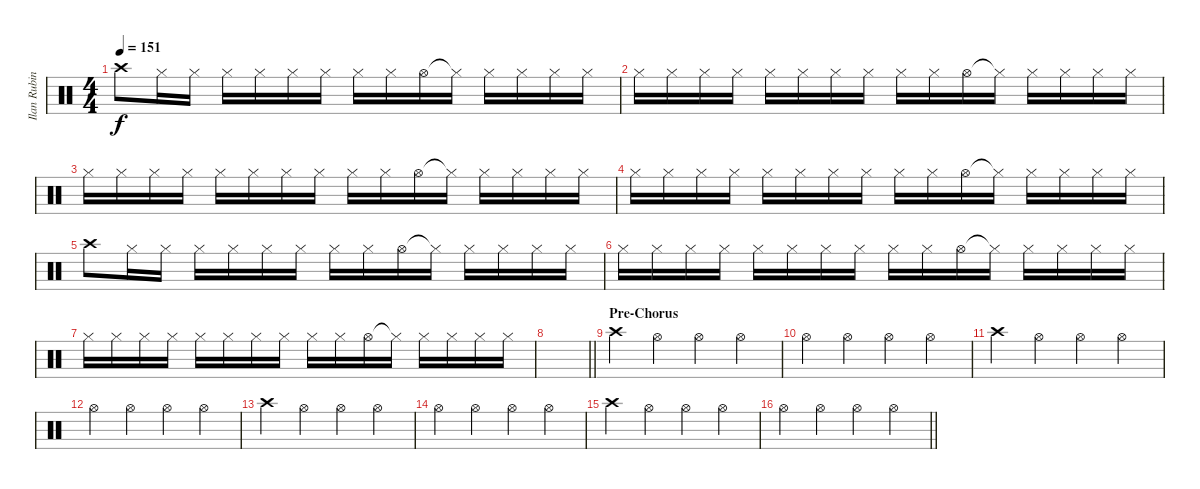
\track ("Ilan Rubin [Drums]" "Ilan Rubin") {instrument percussion}
\staff {score}
\articulation defaults
\ts (4 4)
\tempo 151
\clef neutral
\ks c "Crash high (hit)".8{dy f} "Hi-Hat (closed)".16 "Hi-Hat (closed)".16 "Hi-Hat (closed)".16 "Hi-Hat (closed)".16 "Hi-Hat (closed)".16 "Hi-Hat (closed)".16 "Hi-Hat (closed)".16 "Hi-Hat (closed)".16 "Hi-Hat (open)".16 "Hi-Hat (closed)"{t}.16 "Hi-Hat (closed)".16 "Hi-Hat (closed)".16 "Hi-Hat (closed)".16 "Hi-Hat (closed)".16
|
"Hi-Hat (closed)".16 "Hi-Hat (closed)".16 "Hi-Hat (closed)".16 "Hi-Hat (closed)".16 "Hi-Hat (closed)".16 "Hi-Hat (closed)".16 "Hi-Hat (closed)".16 "Hi-Hat (closed)".16 "Hi-Hat (closed)".16 "Hi-Hat (closed)".16 "Hi-Hat (open)".16 "Hi-Hat (closed)"{t}.16 "Hi-Hat (closed)".16 "Hi-Hat (closed)".16 "Hi-Hat (closed)".16 "Hi-Hat (closed)".16 |
"Hi-Hat (closed)".16 "Hi-Hat (closed)".16 "Hi-Hat (closed)".16 "Hi-Hat (closed)".16 "Hi-Hat (closed)".16 "Hi-Hat (closed)".16 "Hi-Hat (closed)".16 "Hi-Hat (closed)".16 "Hi-Hat (closed)".16 "Hi-Hat (closed)".16 "Hi-Hat (open)".16 "Hi-Hat (closed)"{t}.16 "Hi-Hat (closed)".16 "Hi-Hat (closed)".16 "Hi-Hat (closed)".16 "Hi-Hat (closed)".16 |
"Hi-Hat (closed)".16 "Hi-Hat (closed)".16 "Hi-Hat (closed)".16 "Hi-Hat (closed)".16 "Hi-Hat (closed)".16 "Hi-Hat (closed)".16 "Hi-Hat (closed)".16 "Hi-Hat (closed)".16 "Hi-Hat (closed)".16 "Hi-Hat (closed)".16 "Hi-Hat (open)".16 "Hi-Hat (closed)"{t}.16 "Hi-Hat (closed)".16 "Hi-Hat (closed)".16 "Hi-Hat (closed)".16 "Hi-Hat (closed)".16 |
"Crash high (hit)".8 "Hi-Hat (closed)".16 "Hi-Hat (closed)".16 "Hi-Hat (closed)".16 "Hi-Hat (closed)".16 "Hi-Hat (closed)".16 "Hi-Hat (closed)".16 "Hi-Hat (closed)".16 "Hi-Hat (closed)".16 "Hi-Hat (open)".16 "Hi-Hat (closed)"{t}.16 "Hi-Hat (closed)".16 "Hi-Hat (closed)".16 "Hi-Hat (closed)".16 "Hi-Hat (closed)".16 |
"Hi-Hat (closed)".16 "Hi-Hat (closed)".16 "Hi-Hat (closed)".16 "Hi-Hat (closed)".16 "Hi-Hat (closed)".16 "Hi-Hat (closed)".16 "Hi-Hat (closed)".16 "Hi-Hat (closed)".16 "Hi-Hat (closed)".16 "Hi-Hat (closed)".16 "Hi-Hat (open)".16 "Hi-Hat (closed)"{t}.16 "Hi-Hat (closed)".16 "Hi-Hat (closed)".16 "Hi-Hat (closed)".16 "Hi-Hat (closed)".16 |
"Hi-Hat (closed)".16 "Hi-Hat (closed)".16 "Hi-Hat (closed)".16 "Hi-Hat (closed)".16 "Hi-Hat (closed)".16 "Hi-Hat (closed)".16 "Hi-Hat (closed)".16 "Hi-Hat (closed)".16 "Hi-Hat (closed)".16 "Hi-Hat (closed)".16 "Hi-Hat (open)".16 "Hi-Hat (closed)"{t}.16 "Hi-Hat (closed)".16 "Hi-Hat (closed)".16 "Hi-Hat (closed)".16 "Hi-Hat (closed)".16 |
\barLineRight lightlight
|
\section ("" "Pre-Chorus")
"Crash high (hit)".4 "Hi-Hat (open)".4 "Hi-Hat (open)".4 "Hi-Hat (open)".4 |
"Hi-Hat (open)".4 "Hi-Hat (open)".4 "Hi-Hat (open)".4 "Hi-Hat (open)".4 |
"Crash high (hit)".4 "Hi-Hat (open)".4 "Hi-Hat (open)".4 "Hi-Hat (open)".4 |
"Hi-Hat (open)".4 "Hi-Hat (open)".4 "Hi-Hat (open)".4 "Hi-Hat (open)".4 |
"Crash high (hit)".4 "Hi-Hat (open)".4 "Hi-Hat (open)".4 "Hi-Hat (open)".4 |
"Hi-Hat (open)".4 "Hi-Hat (open)".4 "Hi-Hat (open)".4 "Hi-Hat (open)".4 |
"Crash high (hit)".4 "Hi-Hat (open)".4 "Hi-Hat (open)".4 "Hi-Hat (open)".4 |
\barLineRight lightlight "Hi-Hat (open)".4 "Hi-Hat (open)".4 "Hi-Hat (open)".4 "Hi-Hat (open)".4
